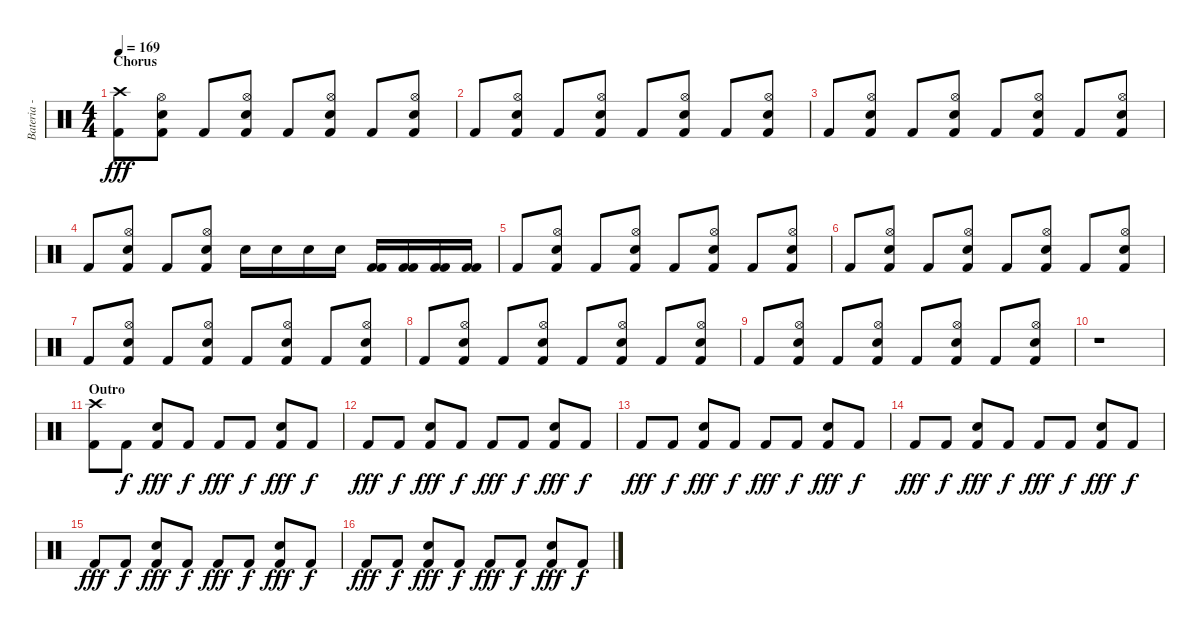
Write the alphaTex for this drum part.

\track ("Bateria - Larzon" "Bateria - ") {instrument percussion}
\staff {score}
\articulation defaults
\ts (4 4)
\section ("" "Chorus")
\tempo 169
\clef neutral
\ks c
("Crash high (hit)" "Kick (hit) 2").8{dy fff} ("Kick (hit) 2" "Hi-Hat (open)" "Snare (hit) 2").8 "Kick (hit) 2".8 ("Kick (hit) 2" "Hi-Hat (open)" "Snare (hit) 2").8 "Kick (hit) 2".8 ("Kick (hit) 2" "Hi-Hat (open)" "Snare (hit) 2").8 "Kick (hit) 2".8 ("Kick (hit) 2" "Hi-Hat (open)" "Snare (hit) 2").8 |
"Kick (hit) 2".8 ("Kick (hit) 2" "Hi-Hat (open)" "Snare (hit) 2").8 "Kick (hit) 2".8 ("Kick (hit) 2" "Hi-Hat (open)" "Snare (hit) 2").8 "Kick (hit) 2".8 ("Kick (hit) 2" "Hi-Hat (open)" "Snare (hit) 2").8 "Kick (hit) 2".8 ("Kick (hit) 2" "Hi-Hat (open)" "Snare (hit) 2").8 |
"Kick (hit) 2".8 ("Kick (hit) 2" "Hi-Hat (open)" "Snare (hit) 2").8 "Kick (hit) 2".8 ("Kick (hit) 2" "Hi-Hat (open)" "Snare (hit) 2").8 "Kick (hit) 2".8 ("Kick (hit) 2" "Hi-Hat (open)" "Snare (hit) 2").8 "Kick (hit) 2".8 ("Kick (hit) 2" "Hi-Hat (open)" "Snare (hit) 2").8 |
"Kick (hit) 2".8 ("Kick (hit) 2" "Hi-Hat (open)" "Snare (hit) 2").8 "Kick (hit) 2".8 ("Kick (hit) 2" "Hi-Hat (open)" "Snare (hit) 2").8 "Snare (hit) 2".16 "Snare (hit) 2".16 "Snare (hit) 2".16 "Snare (hit) 2".16 ("Kick (hit) 2" "Kick (hit) 2").16 ("Kick (hit) 2" "Kick (hit) 2").16 ("Kick (hit) 2" "Kick (hit) 2").16 ("Kick (hit) 2" "Kick (hit) 2").16 |
"Kick (hit) 2".8 ("Kick (hit) 2" "Hi-Hat (open)" "Snare (hit) 2").8 "Kick (hit) 2".8 ("Kick (hit) 2" "Hi-Hat (open)" "Snare (hit) 2").8 "Kick (hit) 2".8 ("Kick (hit) 2" "Hi-Hat (open)" "Snare (hit) 2").8 "Kick (hit) 2".8 ("Kick (hit) 2" "Hi-Hat (open)" "Snare (hit) 2").8 |
"Kick (hit) 2".8 ("Kick (hit) 2" "Hi-Hat (open)" "Snare (hit) 2").8 "Kick (hit) 2".8 ("Kick (hit) 2" "Hi-Hat (open)" "Snare (hit) 2").8 "Kick (hit) 2".8 ("Kick (hit) 2" "Hi-Hat (open)" "Snare (hit) 2").8 "Kick (hit) 2".8 ("Kick (hit) 2" "Hi-Hat (open)" "Snare (hit) 2").8 |
"Kick (hit) 2".8 ("Kick (hit) 2" "Hi-Hat (open)" "Snare (hit) 2").8 "Kick (hit) 2".8 ("Kick (hit) 2" "Hi-Hat (open)" "Snare (hit) 2").8 "Kick (hit) 2".8 ("Kick (hit) 2" "Hi-Hat (open)" "Snare (hit) 2").8 "Kick (hit) 2".8 ("Kick (hit) 2" "Hi-Hat (open)" "Snare (hit) 2").8 |
"Kick (hit) 2".8 ("Kick (hit) 2" "Hi-Hat (open)" "Snare (hit) 2").8 "Kick (hit) 2".8 ("Kick (hit) 2" "Hi-Hat (open)" "Snare (hit) 2").8 "Kick (hit) 2".8 ("Kick (hit) 2" "Hi-Hat (open)" "Snare (hit) 2").8 "Kick (hit) 2".8 ("Kick (hit) 2" "Hi-Hat (open)" "Snare (hit) 2").8 |
"Kick (hit) 2".8 ("Kick (hit) 2" "Hi-Hat (open)" "Snare (hit) 2").8 "Kick (hit) 2".8 ("Kick (hit) 2" "Hi-Hat (open)" "Snare (hit) 2").8 "Kick (hit) 2".8 ("Kick (hit) 2" "Hi-Hat (open)" "Snare (hit) 2").8 "Kick (hit) 2".8 ("Kick (hit) 2" "Hi-Hat (open)" "Snare (hit) 2").8 |
r.1 |
\section ("" "Outro")
("Crash high (hit)" "Kick (hit) 2").8 "Kick (hit) 2".8{dy f} ("Kick (hit) 2" "Snare (hit) 2").8{dy fff} "Kick (hit) 2".8{dy f} "Kick (hit) 2".8{dy fff} "Kick (hit) 2".8{dy f} ("Kick (hit) 2" "Snare (hit) 2").8{dy fff} "Kick (hit) 2".8{dy f} |
"Kick (hit) 2".8{dy fff} "Kick (hit) 2".8{dy f} ("Kick (hit) 2" "Snare (hit) 2").8{dy fff} "Kick (hit) 2".8{dy f} "Kick (hit) 2".8{dy fff} "Kick (hit) 2".8{dy f} ("Kick (hit) 2" "Snare (hit) 2").8{dy fff} "Kick (hit) 2".8{dy f} |
"Kick (hit) 2".8{dy fff} "Kick (hit) 2".8{dy f} ("Kick (hit) 2" "Snare (hit) 2").8{dy fff} "Kick (hit) 2".8{dy f} "Kick (hit) 2".8{dy fff} "Kick (hit) 2".8{dy f} ("Kick (hit) 2" "Snare (hit) 2").8{dy fff} "Kick (hit) 2".8{dy f} |
"Kick (hit) 2".8{dy fff} "Kick (hit) 2".8{dy f} ("Kick (hit) 2" "Snare (hit) 2").8{dy fff} "Kick (hit) 2".8{dy f} "Kick (hit) 2".8{dy fff} "Kick (hit) 2".8{dy f} ("Kick (hit) 2" "Snare (hit) 2").8{dy fff} "Kick (hit) 2".8{dy f} |
"Kick (hit) 2".8{dy fff} "Kick (hit) 2".8{dy f} ("Kick (hit) 2" "Snare (hit) 2").8{dy fff} "Kick (hit) 2".8{dy f} "Kick (hit) 2".8{dy fff} "Kick (hit) 2".8{dy f} ("Kick (hit) 2" "Snare (hit) 2").8{dy fff} "Kick (hit) 2".8{dy f} |
"Kick (hit) 2".8{dy fff} "Kick (hit) 2".8{dy f} ("Kick (hit) 2" "Snare (hit) 2").8{dy fff} "Kick (hit) 2".8{dy f} "Kick (hit) 2".8{dy fff} "Kick (hit) 2".8{dy f} ("Kick (hit) 2" "Snare (hit) 2").8{dy fff} "Kick (hit) 2".8{dy f}
